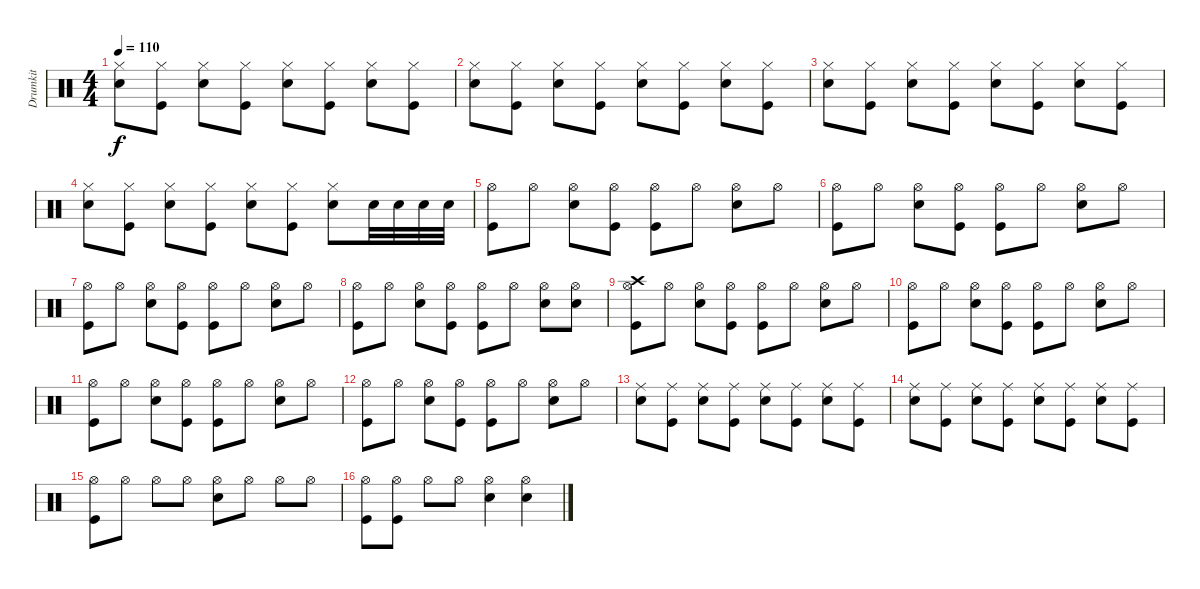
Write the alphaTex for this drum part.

\track ("Drumkit" "Drumkit") {instrument percussion}
\staff {score}
\articulation defaults
\ts (4 4)
\tempo 110
\clef neutral
\ks c
("Hi-Hat (closed)" "Snare (hit) 2").8{dy f} ("Hi-Hat (closed)" "Kick (hit)").8 ("Hi-Hat (closed)" "Snare (hit) 2").8 ("Hi-Hat (closed)" "Kick (hit)").8 ("Hi-Hat (closed)" "Snare (hit) 2").8 ("Hi-Hat (closed)" "Kick (hit)").8 ("Hi-Hat (closed)" "Snare (hit) 2").8 ("Hi-Hat (closed)" "Kick (hit)").8 |
("Hi-Hat (closed)" "Snare (hit) 2").8 ("Hi-Hat (closed)" "Kick (hit)").8 ("Hi-Hat (closed)" "Snare (hit) 2").8 ("Hi-Hat (closed)" "Kick (hit)").8 ("Hi-Hat (closed)" "Snare (hit) 2").8 ("Hi-Hat (closed)" "Kick (hit)").8 ("Hi-Hat (closed)" "Snare (hit) 2").8 ("Hi-Hat (closed)" "Kick (hit)").8 |
("Hi-Hat (closed)" "Snare (hit) 2").8 ("Hi-Hat (closed)" "Kick (hit)").8 ("Hi-Hat (closed)" "Snare (hit) 2").8 ("Hi-Hat (closed)" "Kick (hit)").8 ("Hi-Hat (closed)" "Snare (hit) 2").8 ("Hi-Hat (closed)" "Kick (hit)").8 ("Hi-Hat (closed)" "Snare (hit) 2").8 ("Hi-Hat (closed)" "Kick (hit)").8 |
("Hi-Hat (closed)" "Snare (hit) 2").8 ("Hi-Hat (closed)" "Kick (hit)").8 ("Hi-Hat (closed)" "Snare (hit) 2").8 ("Hi-Hat (closed)" "Kick (hit)").8 ("Hi-Hat (closed)" "Snare (hit) 2").8 ("Hi-Hat (closed)" "Kick (hit)").8 ("Hi-Hat (closed)" "Snare (hit) 2").8 "Snare (hit) 2".32 "Snare (hit) 2".32 "Snare (hit) 2".32 "Snare (hit) 2".32 |
("Hi-Hat (open)" "Kick (hit)").8 "Hi-Hat (open)".8 ("Hi-Hat (open)" "Snare (hit) 2").8 ("Hi-Hat (open)" "Kick (hit)").8 ("Hi-Hat (open)" "Kick (hit)").8 "Hi-Hat (open)".8 ("Hi-Hat (open)" "Snare (hit) 2").8 "Hi-Hat (open)".8 |
("Hi-Hat (open)" "Kick (hit)").8 "Hi-Hat (open)".8 ("Hi-Hat (open)" "Snare (hit) 2").8 ("Hi-Hat (open)" "Kick (hit)").8 ("Hi-Hat (open)" "Kick (hit)").8 "Hi-Hat (open)".8 ("Hi-Hat (open)" "Snare (hit) 2").8 "Hi-Hat (open)".8 |
("Hi-Hat (open)" "Kick (hit)").8 "Hi-Hat (open)".8 ("Hi-Hat (open)" "Snare (hit) 2").8 ("Hi-Hat (open)" "Kick (hit)").8 ("Hi-Hat (open)" "Kick (hit)").8 "Hi-Hat (open)".8 ("Hi-Hat (open)" "Snare (hit) 2").8 "Hi-Hat (open)".8 |
("Hi-Hat (open)" "Kick (hit)").8 "Hi-Hat (open)".8 ("Hi-Hat (open)" "Snare (hit) 2").8 ("Hi-Hat (open)" "Kick (hit)").8 ("Hi-Hat (open)" "Kick (hit)").8 "Hi-Hat (open)".8 ("Hi-Hat (open)" "Snare (hit) 2").8 ("Hi-Hat (open)" "Snare (hit) 2").8 |
("Crash high (hit)" "Hi-Hat (open)" "Kick (hit)").8 "Hi-Hat (open)".8 ("Hi-Hat (open)" "Snare (hit) 2").8 ("Hi-Hat (open)" "Kick (hit)").8 ("Hi-Hat (open)" "Kick (hit)").8 "Hi-Hat (open)".8 ("Hi-Hat (open)" "Snare (hit) 2").8 "Hi-Hat (open)".8 |
("Hi-Hat (open)" "Kick (hit)").8 "Hi-Hat (open)".8 ("Hi-Hat (open)" "Snare (hit) 2").8 ("Hi-Hat (open)" "Kick (hit)").8 ("Hi-Hat (open)" "Kick (hit)").8 "Hi-Hat (open)".8 ("Hi-Hat (open)" "Snare (hit) 2").8 "Hi-Hat (open)".8 |
("Hi-Hat (open)" "Kick (hit)").8 "Hi-Hat (open)".8 ("Hi-Hat (open)" "Snare (hit) 2").8 ("Hi-Hat (open)" "Kick (hit)").8 ("Hi-Hat (open)" "Kick (hit)").8 "Hi-Hat (open)".8 ("Hi-Hat (open)" "Snare (hit) 2").8 "Hi-Hat (open)".8 |
("Hi-Hat (open)" "Kick (hit)").8 "Hi-Hat (open)".8 ("Hi-Hat (open)" "Snare (hit) 2").8 ("Hi-Hat (open)" "Kick (hit)").8 ("Hi-Hat (open)" "Kick (hit)").8 "Hi-Hat (open)".8 ("Hi-Hat (open)" "Snare (hit) 2").8 "Hi-Hat (open)".8 |
("Ride (middle)" "Snare (hit) 2").8 ("Ride (middle)" "Kick (hit)").8 ("Ride (middle)" "Snare (hit) 2").8 ("Ride (middle)" "Kick (hit)").8 ("Ride (middle)" "Snare (hit) 2").8 ("Ride (middle)" "Kick (hit)").8 ("Ride (middle)" "Snare (hit) 2").8 ("Ride (middle)" "Kick (hit)").8 |
("Ride (middle)" "Snare (hit) 2").8 ("Ride (middle)" "Kick (hit)").8 ("Ride (middle)" "Snare (hit) 2").8 ("Ride (middle)" "Kick (hit)").8 ("Ride (middle)" "Snare (hit) 2").8 ("Ride (middle)" "Kick (hit)").8 ("Ride (middle)" "Snare (hit) 2").8 ("Ride (middle)" "Kick (hit)").8 |
("Hi-Hat (open)" "Kick (hit)").8 "Hi-Hat (open)".8 "Hi-Hat (open)".8 "Hi-Hat (open)".8 ("Hi-Hat (open)" "Snare (hit) 2").8 "Hi-Hat (open)".8 "Hi-Hat (open)".8 "Hi-Hat (open)".8 |
("Hi-Hat (open)" "Kick (hit)").8 ("Hi-Hat (open)" "Kick (hit)").8 "Hi-Hat (open)".8 "Hi-Hat (open)".8 ("Hi-Hat (open)" "Snare (hit) 2").4 ("Hi-Hat (open)" "Snare (hit) 2").4
